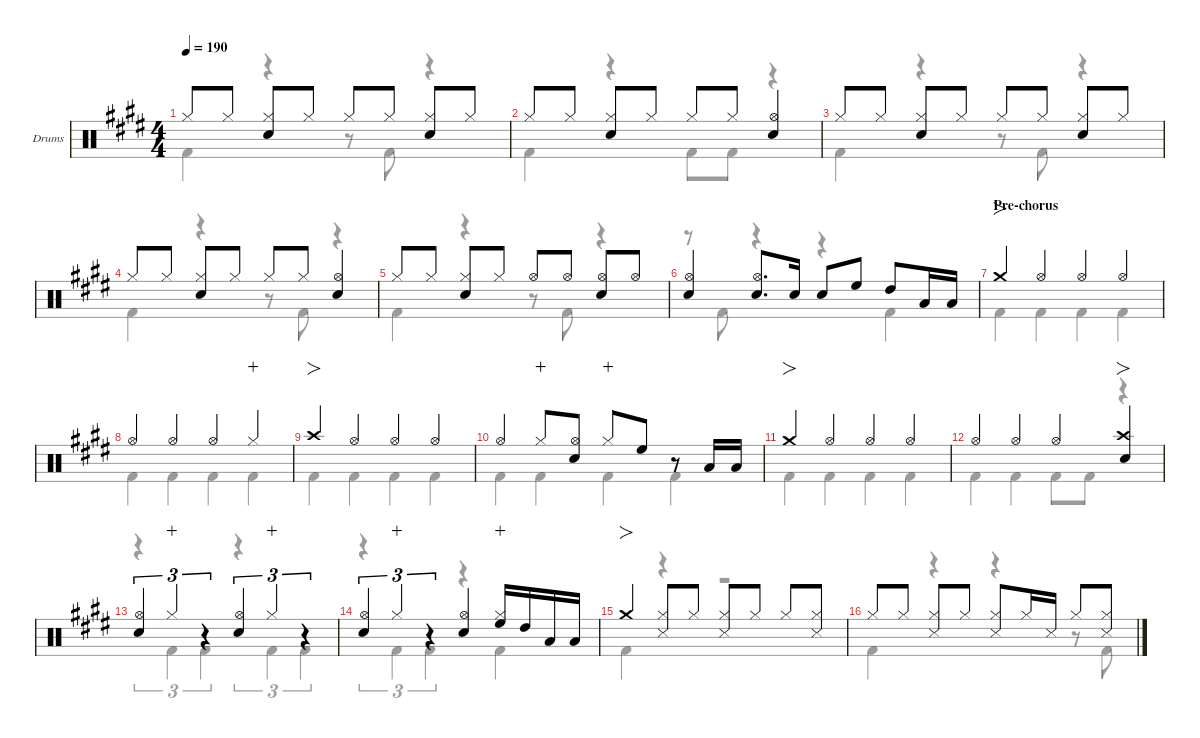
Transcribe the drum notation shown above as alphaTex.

\defaultSystemsLayout 4
\hideDynamics
\bracketExtendMode nobrackets
\firstSystemTrackNameOrientation horizontal
\track ("Drums" "Drums") {defaultSystemsLayout 4 instrument percussion}
\staff {score}
\articulation defaults
\voice
\ts (4 4)
\tempo 190
\clef neutral
\ks e "Hi-Hat (closed)"{acc forcenatural}.8{dy f} "Hi-Hat (closed)"{acc forcenatural}.8{dy mf}
("Hi-Hat (closed)"{acc forcenatural} "Snare (hit) 2"{acc forcenatural}).8{dy f} "Hi-Hat (closed)"{acc forcenatural}.8{dy mf} "Hi-Hat (closed)"{acc forcenatural}.8{dy f} "Hi-Hat (closed)"{acc forcenatural}.8{dy mf} ("Hi-Hat (closed)"{acc forcenatural} "Snare (hit) 2"{acc forcenatural}).8{dy f} "Hi-Hat (closed)"{acc forcenatural}.8{dy mf} |
"Hi-Hat (closed)"{acc forcenatural}.8{dy f} "Hi-Hat (closed)"{acc forcenatural}.8{dy mf} ("Hi-Hat (closed)"{acc forcenatural} "Snare (hit) 2"{acc forcenatural}).8{dy f} "Hi-Hat (closed)"{acc forcenatural}.8{dy mf} "Hi-Hat (closed)"{acc forcenatural}.8{dy f} "Hi-Hat (closed)"{acc forcenatural}.8{dy mf} ("Hi-Hat (open)"{acc forcenatural} "Snare (hit) 2"{acc forcenatural}).4{dy f} |
"Hi-Hat (closed)"{acc forcenatural}.8 "Hi-Hat (closed)"{acc forcenatural}.8{dy mf} ("Hi-Hat (closed)"{acc forcenatural} "Snare (hit) 2"{acc forcenatural}).8{dy f} "Hi-Hat (closed)"{acc forcenatural}.8{dy mf} "Hi-Hat (closed)"{acc forcenatural}.8{dy f} "Hi-Hat (closed)"{acc forcenatural}.8{dy mf} ("Hi-Hat (closed)"{acc forcenatural} "Snare (hit) 2"{acc forcenatural}).8{dy f} "Hi-Hat (closed)"{acc forcenatural}.8{dy mf} |
"Hi-Hat (closed)"{acc forcenatural}.8{dy f} "Hi-Hat (closed)"{acc forcenatural}.8{dy mf} ("Hi-Hat (closed)"{acc forcenatural} "Snare (hit) 2"{acc forcenatural}).8{dy f} "Hi-Hat (closed)"{acc forcenatural}.8{dy mf} "Hi-Hat (closed)"{acc forcenatural}.8{dy f} "Hi-Hat (closed)"{acc forcenatural}.8{dy mf} ("Hi-Hat (open)"{acc forcenatural} "Snare (hit) 2"{acc forcenatural}).4{dy f} |
"Hi-Hat (closed)"{acc forcenatural}.8 "Hi-Hat (closed)"{acc forcenatural}.8{dy mf} ("Hi-Hat (closed)"{acc forcenatural} "Snare (hit) 2"{acc forcenatural}).8{dy f} "Hi-Hat (closed)"{acc forcenatural}.8{dy mf} "Hi-Hat (open)"{acc forcenatural}.8 "Hi-Hat (open)"{acc forcenatural}.8 ("Hi-Hat (open)"{acc forcenatural} "Snare (hit) 2"{acc forcenatural}).8{dy f} "Hi-Hat (open)"{acc forcenatural}.8{dy mf} |
("Hi-Hat (open)"{acc forcenatural} "Snare (hit) 2"{acc forcenatural}).4{dy f} ("Hi-Hat (open)"{acc forcenatural} "Snare (hit) 2"{acc forcenatural}).8{d} "Snare (hit) 2"{acc forcenatural}.16{dy mf} "Snare (hit) 2"{acc forcenatural}.8{dy f} "High Floor Tom (hit)"{acc forcenatural}.8{beam split} "High Tom (hit)"{acc forcenatural}.8{beam merge} "Low Tom (hit)"{acc forcenatural}.16 "Low Tom (hit)"{acc forcenatural}.16 |
\section ("" "Pre-chorus")
"Crash medium (hit)"{acc forcenatural}.4{fo} "Hi-Hat (open)"{acc forcenatural}.4 "Hi-Hat (open)"{acc forcenatural}.4 "Hi-Hat (open)"{acc forcenatural}.4 |
"Hi-Hat (open)"{acc forcenatural}.4 "Hi-Hat (open)"{acc forcenatural}.4 "Hi-Hat (open)"{acc forcenatural}.4 "Hi-Hat (closed)"{acc forcenatural}.4{dy mp wahc} |
"Crash high (hit)"{acc forcenatural}.4{fo dy f} "Hi-Hat (open)"{acc forcenatural}.4 "Hi-Hat (open)"{acc forcenatural}.4 "Hi-Hat (open)"{acc forcenatural}.4 |
"Hi-Hat (open)"{acc forcenatural}.4 "Hi-Hat (closed)"{acc forcenatural}.8{dy mp wahc} ("Snare (hit) 2"{acc forcenatural} "Hi-Hat (open)"{acc forcenatural}).8{dy f} "Hi-Hat (closed)"{acc forcenatural}.8{dy mp wahc} "High Floor Tom (hit)"{acc forcenatural}.8{dy f beam split} r.8{beam split} "Low Tom (hit)"{acc forcenatural}.16 "Low Tom (hit)"{acc forcenatural}.16 |
"Crash medium (hit)"{acc forcenatural}.4{fo} "Hi-Hat (open)"{acc forcenatural}.4 "Hi-Hat (open)"{acc forcenatural}.4 "Hi-Hat (open)"{acc forcenatural}.4 |
"Hi-Hat (open)"{acc forcenatural}.4 "Hi-Hat (open)"{acc forcenatural}.4 "Hi-Hat (open)"{acc forcenatural}.4 ("Crash high (hit)"{acc forcenatural} "Snare (hit) 2"{acc forcenatural}).4{fo} |
("Snare (hit) 2"{acc forcenatural} "Hi-Hat (open)"{acc forcenatural}).4{tu (3 2)} "Hi-Hat (closed)"{acc forcenatural}.4{tu (3 2) dy mp wahc} r.4{tu (3 2)} ("Snare (hit) 2"{acc forcenatural} "Hi-Hat (open)"{acc forcenatural}).4{tu (3 2) dy f} "Hi-Hat (closed)"{acc forcenatural}.4{tu (3 2) dy mp wahc} r.4{tu (3 2)} |
("Snare (hit) 2"{acc forcenatural} "Hi-Hat (open)"{acc forcenatural}).4{tu (3 2) dy f} "Hi-Hat (closed)"{acc forcenatural}.4{tu (3 2) dy mp wahc} r.4{tu (3 2)} ("Snare (hit) 2"{acc forcenatural} "Hi-Hat (open)"{acc forcenatural}).4{dy f} ("Hi-Hat (closed)"{acc forcenatural} "High Floor Tom (hit)"{acc forcenatural}).16{wahc} "High Tom (hit)"{acc forcenatural}.16 "Low Tom (hit)"{acc forcenatural}.16 "Low Tom (hit)"{acc forcenatural}.16 |
"Crash medium (hit)"{acc forcenatural}.4{fo} ("Snare (side stick) 3"{acc forcenatural} "Hi-Hat (closed)"{acc forcenatural}).8 "Hi-Hat (closed)"{acc forcenatural}.8{dy mf} ("Hi-Hat (closed)"{acc forcenatural} "Snare (side stick) 3"{acc forcenatural}).8{dy f} "Hi-Hat (closed)"{acc forcenatural}.8{dy mf} "Hi-Hat (closed)"{acc forcenatural}.8{dy f} ("Hi-Hat (closed)"{acc forcenatural} "Snare (side stick) 3"{acc forcenatural}).8{dy mf} |
"Hi-Hat (closed)"{acc forcenatural}.8{dy f} "Hi-Hat (closed)"{acc forcenatural}.8{dy mf} ("Snare (side stick) 3"{acc forcenatural} "Hi-Hat (closed)"{acc forcenatural}).8{dy f} "Hi-Hat (closed)"{acc forcenatural}.8{dy mf} ("Hi-Hat (closed)"{acc forcenatural} "Snare (side stick) 3"{acc forcenatural}).8{dy f} "Hi-Hat (closed)"{acc forcenatural}.16{dy mf} "Snare (side stick) 3"{acc forcenatural}.16{dy f beam split} "Hi-Hat (closed)"{acc forcenatural}.8 ("Hi-Hat (closed)"{acc forcenatural} "Snare (side stick) 3"{acc forcenatural}).8{dy mf}
\voice
\clef neutral
\ottava regular
\simile none
\ks e "Kick (hit) 2"{acc forcenatural}.4{dy f}
r.4 r.8 "Kick (hit) 2"{acc forcenatural}.8 r.4 |
"Kick (hit) 2"{acc forcenatural}.4 r.4 "Kick (hit) 2"{acc forcenatural}.8 "Kick (hit) 2"{acc forcenatural}.8 r.4 |
"Kick (hit) 2"{acc forcenatural}.4 r.4 r.8 "Kick (hit) 2"{acc forcenatural}.8 r.4 |
"Kick (hit) 2"{acc forcenatural}.4 r.4 r.8 "Kick (hit) 2"{acc forcenatural}.8 r.4 |
"Kick (hit) 2"{acc forcenatural}.4 r.4 r.8 "Kick (hit) 2"{acc forcenatural}.8 r.4 |
r.8 "Kick (hit) 2"{acc forcenatural}.8 r.4 r.4 "Kick (hit) 2"{acc forcenatural}.4 |
"Kick (hit) 2"{acc forcenatural}.4 "Kick (hit) 2"{acc forcenatural}.4 "Kick (hit) 2"{acc forcenatural}.4 "Kick (hit) 2"{acc forcenatural}.4 |
"Kick (hit) 2"{acc forcenatural}.4 "Kick (hit) 2"{acc forcenatural}.4 "Kick (hit) 2"{acc forcenatural}.4 "Kick (hit) 2"{acc forcenatural}.4 |
"Kick (hit) 2"{acc forcenatural}.4 "Kick (hit) 2"{acc forcenatural}.4 "Kick (hit) 2"{acc forcenatural}.4 "Kick (hit) 2"{acc forcenatural}.4 |
"Kick (hit) 2"{acc forcenatural}.4 "Kick (hit) 2"{acc forcenatural}.4 "Kick (hit) 2"{acc forcenatural}.4 "Kick (hit) 2"{acc forcenatural}.4 |
"Kick (hit) 2"{acc forcenatural}.4 "Kick (hit) 2"{acc forcenatural}.4 "Kick (hit) 2"{acc forcenatural}.4 "Kick (hit) 2"{acc forcenatural}.4 |
"Kick (hit) 2"{acc forcenatural}.4 "Kick (hit) 2"{acc forcenatural}.4 "Kick (hit) 2"{acc forcenatural}.8 "Kick (hit) 2"{acc forcenatural}.8 r.4 |
r.4{tu (3 2)} "Kick (hit) 2"{acc forcenatural}.4{tu (3 2)} "Kick (hit) 2"{acc forcenatural}.4{tu (3 2)} r.4{tu (3 2)} "Kick (hit) 2"{acc forcenatural}.4{tu (3 2)} "Kick (hit) 2"{acc forcenatural}.4{tu (3 2)} |
r.4{tu (3 2)} "Kick (hit) 2"{acc forcenatural}.4{tu (3 2)} "Kick (hit) 2"{acc forcenatural}.4{tu (3 2)} r.4 "Kick (hit) 2"{acc forcenatural}.4 |
"Kick (hit) 2"{acc forcenatural}.4 r.4 r.2 |
"Kick (hit) 2"{acc forcenatural}.4 r.4 r.4 r.8 "Kick (hit) 2"{acc forcenatural}.8
